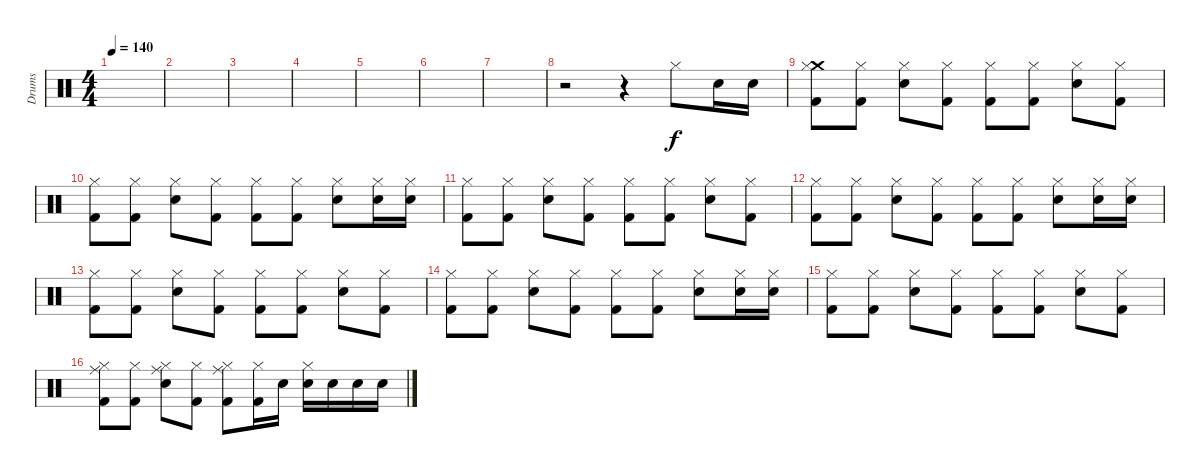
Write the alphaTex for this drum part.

\track ("Drums" "Drums") {instrument percussion}
\staff {score}
\articulation defaults
\ts (4 4)
\tempo 140
\clef neutral
\ks c
|
|
|
|
|
|
|
r.2 r.4 "Hi-Hat (closed)".8 "Snare (hit) 2".16 "Snare (hit) 2".16 |
("Crash medium (hit)" "Hi-Hat (closed)" "Kick (hit) 2").8 ("Hi-Hat (closed)" "Kick (hit) 2").8 ("Hi-Hat (closed)" "Snare (hit) 2").8 ("Hi-Hat (closed)" "Kick (hit) 2").8 ("Hi-Hat (closed)" "Kick (hit) 2").8 ("Hi-Hat (closed)" "Kick (hit) 2").8 ("Hi-Hat (closed)" "Snare (hit) 2").8 ("Hi-Hat (closed)" "Kick (hit) 2").8 |
("Hi-Hat (closed)" "Kick (hit) 2").8 ("Hi-Hat (closed)" "Kick (hit) 2").8 ("Hi-Hat (closed)" "Snare (hit) 2").8 ("Hi-Hat (closed)" "Kick (hit) 2").8 ("Hi-Hat (closed)" "Kick (hit) 2").8 ("Hi-Hat (closed)" "Kick (hit) 2").8 ("Hi-Hat (closed)" "Snare (hit) 2").8 ("Hi-Hat (closed)" "Snare (hit) 2").16 ("Hi-Hat (closed)" "Snare (hit) 2").16 |
("Hi-Hat (closed)" "Kick (hit) 2").8 ("Hi-Hat (closed)" "Kick (hit) 2").8 ("Hi-Hat (closed)" "Snare (hit) 2").8 ("Hi-Hat (closed)" "Kick (hit) 2").8 ("Hi-Hat (closed)" "Kick (hit) 2").8 ("Hi-Hat (closed)" "Kick (hit) 2").8 ("Hi-Hat (closed)" "Snare (hit) 2").8 ("Hi-Hat (closed)" "Kick (hit) 2").8 |
("Hi-Hat (closed)" "Kick (hit) 2").8 ("Hi-Hat (closed)" "Kick (hit) 2").8 ("Hi-Hat (closed)" "Snare (hit) 2").8 ("Hi-Hat (closed)" "Kick (hit) 2").8 ("Hi-Hat (closed)" "Kick (hit) 2").8 ("Hi-Hat (closed)" "Kick (hit) 2").8 ("Hi-Hat (closed)" "Snare (hit) 2").8 ("Hi-Hat (closed)" "Snare (hit) 2").16 ("Hi-Hat (closed)" "Snare (hit) 2").16 |
("Hi-Hat (closed)" "Kick (hit) 2").8 ("Hi-Hat (closed)" "Kick (hit) 2").8 ("Hi-Hat (closed)" "Snare (hit) 2").8 ("Hi-Hat (closed)" "Kick (hit) 2").8 ("Hi-Hat (closed)" "Kick (hit) 2").8 ("Hi-Hat (closed)" "Kick (hit) 2").8 ("Hi-Hat (closed)" "Snare (hit) 2").8 ("Hi-Hat (closed)" "Kick (hit) 2").8 |
("Hi-Hat (closed)" "Kick (hit) 2").8 ("Hi-Hat (closed)" "Kick (hit) 2").8 ("Hi-Hat (closed)" "Snare (hit) 2").8 ("Hi-Hat (closed)" "Kick (hit) 2").8 ("Hi-Hat (closed)" "Kick (hit) 2").8 ("Hi-Hat (closed)" "Kick (hit) 2").8 ("Hi-Hat (closed)" "Snare (hit) 2").8 ("Hi-Hat (closed)" "Snare (hit) 2").16 ("Hi-Hat (closed)" "Snare (hit) 2").16 |
("Hi-Hat (closed)" "Kick (hit) 2").8 ("Hi-Hat (closed)" "Kick (hit) 2").8 ("Hi-Hat (closed)" "Snare (hit) 2").8 ("Hi-Hat (closed)" "Kick (hit) 2").8 ("Hi-Hat (closed)" "Kick (hit) 2").8 ("Hi-Hat (closed)" "Kick (hit) 2").8 ("Hi-Hat (closed)" "Snare (hit) 2").8 ("Hi-Hat (closed)" "Kick (hit) 2").8 |
("Ride (middle)" "Hi-Hat (closed)" "Kick (hit) 2").8 ("Hi-Hat (closed)" "Kick (hit) 2").8 ("Ride (middle)" "Hi-Hat (closed)" "Snare (hit) 2").8 ("Hi-Hat (closed)" "Kick (hit) 2").8 ("Ride (middle)" "Hi-Hat (closed)" "Kick (hit) 2").8 ("Hi-Hat (closed)" "Kick (hit) 2").16 "Snare (hit) 2".16 ("Hi-Hat (closed)" "Snare (hit) 2").16 "Snare (hit) 2".16 "Snare (hit) 2".16 "Snare (hit) 2".16
